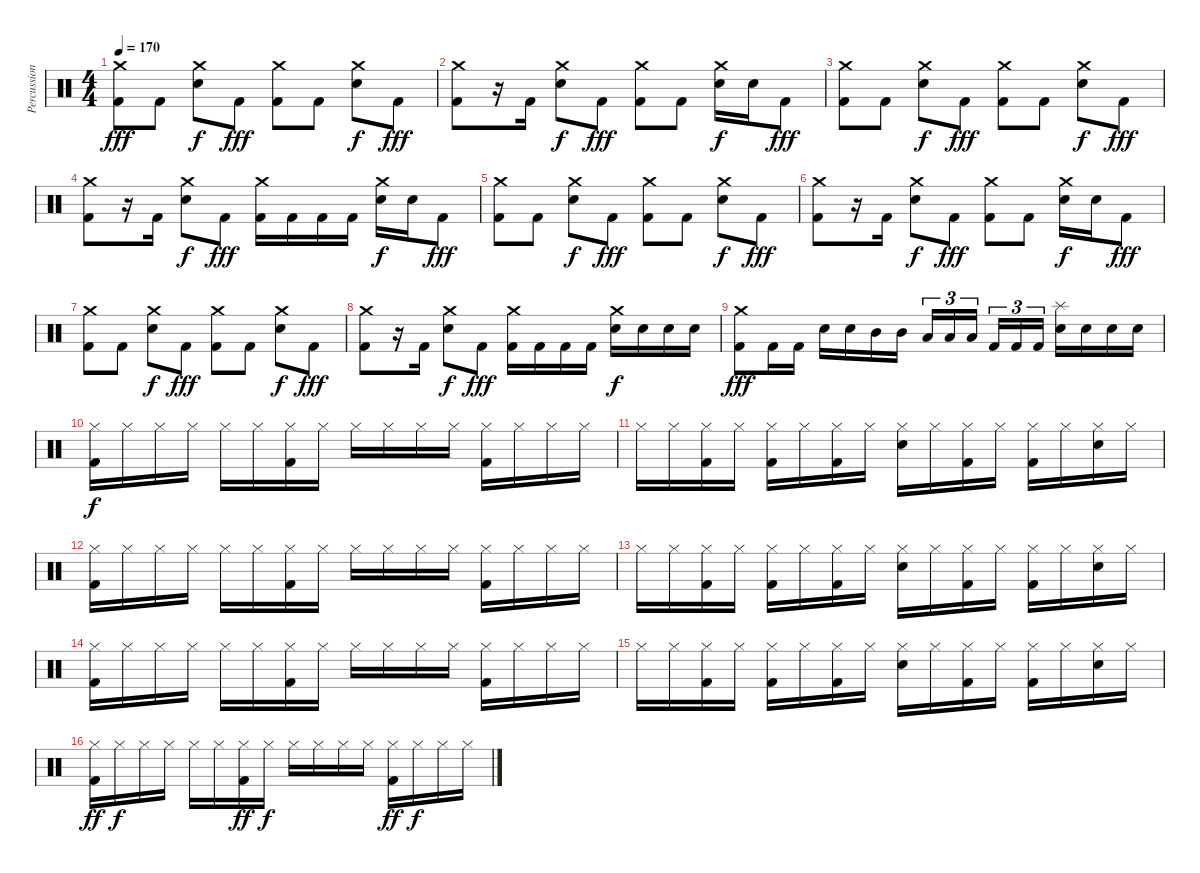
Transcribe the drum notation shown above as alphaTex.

\track ("Percussion" "Percussion") {instrument percussion}
\staff {score}
\articulation defaults
\ts (4 4)
\tempo 170
\clef neutral
\ks c
("Crash medium (hit)" "Kick (hit) 2").8{dy fff} "Kick (hit) 2".8 ("Crash medium (hit)" "Electric Snare (hit)").8{dy f} "Kick (hit) 2".8{dy fff} ("Crash medium (hit)" "Kick (hit) 2").8 "Kick (hit) 2".8 ("Crash medium (hit)" "Electric Snare (hit)").8{dy f} "Kick (hit) 2".8{dy fff} |
("Crash medium (hit)" "Kick (hit) 2").8 r.16 "Kick (hit) 2".16 ("Crash medium (hit)" "Electric Snare (hit)").8{dy f} "Kick (hit) 2".8{dy fff} ("Crash medium (hit)" "Kick (hit) 2").8 "Kick (hit) 2".8 ("Crash medium (hit)" "Electric Snare (hit)").16{dy f} "Electric Snare (hit)".16 "Kick (hit) 2".8{dy fff} |
("Crash medium (hit)" "Kick (hit) 2").8 "Kick (hit) 2".8 ("Crash medium (hit)" "Electric Snare (hit)").8{dy f} "Kick (hit) 2".8{dy fff} ("Crash medium (hit)" "Kick (hit) 2").8 "Kick (hit) 2".8 ("Crash medium (hit)" "Electric Snare (hit)").8{dy f} "Kick (hit) 2".8{dy fff} |
("Crash medium (hit)" "Kick (hit) 2").8 r.16 "Kick (hit) 2".16 ("Crash medium (hit)" "Electric Snare (hit)").8{dy f} "Kick (hit) 2".8{dy fff} ("Crash medium (hit)" "Kick (hit) 2").16 "Kick (hit) 2".16 "Kick (hit) 2".16 "Kick (hit) 2".16 ("Crash medium (hit)" "Electric Snare (hit)").16{dy f} "Electric Snare (hit)".16 "Kick (hit) 2".8{dy fff} |
("Crash medium (hit)" "Kick (hit) 2").8 "Kick (hit) 2".8 ("Crash medium (hit)" "Electric Snare (hit)").8{dy f} "Kick (hit) 2".8{dy fff} ("Crash medium (hit)" "Kick (hit) 2").8 "Kick (hit) 2".8 ("Crash medium (hit)" "Electric Snare (hit)").8{dy f} "Kick (hit) 2".8{dy fff} |
("Crash medium (hit)" "Kick (hit) 2").8 r.16 "Kick (hit) 2".16 ("Crash medium (hit)" "Electric Snare (hit)").8{dy f} "Kick (hit) 2".8{dy fff} ("Crash medium (hit)" "Kick (hit) 2").8 "Kick (hit) 2".8 ("Crash medium (hit)" "Electric Snare (hit)").16{dy f} "Electric Snare (hit)".16 "Kick (hit) 2".8{dy fff} |
("Crash medium (hit)" "Kick (hit) 2").8 "Kick (hit) 2".8 ("Crash medium (hit)" "Electric Snare (hit)").8{dy f} "Kick (hit) 2".8{dy fff} ("Crash medium (hit)" "Kick (hit) 2").8 "Kick (hit) 2".8 ("Crash medium (hit)" "Electric Snare (hit)").8{dy f} "Kick (hit) 2".8{dy fff} |
("Crash medium (hit)" "Kick (hit) 2").8 r.16 "Kick (hit) 2".16 ("Crash medium (hit)" "Electric Snare (hit)").8{dy f} "Kick (hit) 2".8{dy fff} ("Crash medium (hit)" "Kick (hit) 2").16 "Kick (hit) 2".16 "Kick (hit) 2".16 "Kick (hit) 2".16 ("Crash medium (hit)" "Electric Snare (hit)").16{dy f} "Electric Snare (hit)".16 "Electric Snare (hit)".16 "Electric Snare (hit)".16 |
("Crash medium (hit)" "Kick (hit) 2").8{dy fff} "Kick (hit) 2".16 "Kick (hit) 2".16 "Electric Snare (hit)".16 "Electric Snare (hit)".16 "Mid Tom (hit)".16 "Mid Tom (hit)".16 "Low Tom (hit)".16{tu (3 2)} "Low Tom (hit)".16{tu (3 2)} "Low Tom (hit)".16{tu (3 2) beam splitsecondary} "Kick (hit) 2".16{tu (3 2)} "Kick (hit) 2".16{tu (3 2)} "Kick (hit) 2".16{tu (3 2)} ("Splash (hit)" "Electric Snare (hit)").16 "Electric Snare (hit)".16 "Electric Snare (hit)".16 "Electric Snare (hit)".16 |
("Hi-Hat (closed)" "Kick (hit) 2").16{dy f} "Hi-Hat (closed)".16 "Hi-Hat (closed)".16 "Hi-Hat (closed)".16 "Hi-Hat (closed)".16 "Hi-Hat (closed)".16 ("Hi-Hat (closed)" "Kick (hit) 2").16 "Hi-Hat (closed)".16 "Hi-Hat (closed)".16 "Hi-Hat (closed)".16 "Hi-Hat (closed)".16 "Hi-Hat (closed)".16 ("Hi-Hat (closed)" "Kick (hit) 2").16 "Hi-Hat (closed)".16 "Hi-Hat (closed)".16 "Hi-Hat (closed)".16 |
"Hi-Hat (closed)".16 "Hi-Hat (closed)".16 ("Hi-Hat (closed)" "Kick (hit) 2").16 "Hi-Hat (closed)".16 ("Hi-Hat (closed)" "Kick (hit) 2").16 "Hi-Hat (closed)".16 ("Hi-Hat (closed)" "Kick (hit) 2").16 "Hi-Hat (closed)".16 ("Hi-Hat (closed)" "Electric Snare (hit)").16 "Hi-Hat (closed)".16 ("Hi-Hat (closed)" "Kick (hit) 2").16 "Hi-Hat (closed)".16 ("Hi-Hat (closed)" "Kick (hit) 2").16 "Hi-Hat (closed)".16 ("Hi-Hat (closed)" "Electric Snare (hit)").16 "Hi-Hat (closed)".16 |
("Hi-Hat (closed)" "Kick (hit) 2").16 "Hi-Hat (closed)".16 "Hi-Hat (closed)".16 "Hi-Hat (closed)".16 "Hi-Hat (closed)".16 "Hi-Hat (closed)".16 ("Hi-Hat (closed)" "Kick (hit) 2").16 "Hi-Hat (closed)".16 "Hi-Hat (closed)".16 "Hi-Hat (closed)".16 "Hi-Hat (closed)".16 "Hi-Hat (closed)".16 ("Hi-Hat (closed)" "Kick (hit) 2").16 "Hi-Hat (closed)".16 "Hi-Hat (closed)".16 "Hi-Hat (closed)".16 |
"Hi-Hat (closed)".16 "Hi-Hat (closed)".16 ("Hi-Hat (closed)" "Kick (hit) 2").16 "Hi-Hat (closed)".16 ("Hi-Hat (closed)" "Kick (hit) 2").16 "Hi-Hat (closed)".16 ("Hi-Hat (closed)" "Kick (hit) 2").16 "Hi-Hat (closed)".16 ("Hi-Hat (closed)" "Electric Snare (hit)").16 "Hi-Hat (closed)".16 ("Hi-Hat (closed)" "Kick (hit) 2").16 "Hi-Hat (closed)".16 ("Hi-Hat (closed)" "Kick (hit) 2").16 "Hi-Hat (closed)".16 ("Hi-Hat (closed)" "Electric Snare (hit)").16 "Hi-Hat (closed)".16 |
("Hi-Hat (closed)" "Kick (hit) 2").16 "Hi-Hat (closed)".16 "Hi-Hat (closed)".16 "Hi-Hat (closed)".16 "Hi-Hat (closed)".16 "Hi-Hat (closed)".16 ("Hi-Hat (closed)" "Kick (hit) 2").16 "Hi-Hat (closed)".16 "Hi-Hat (closed)".16 "Hi-Hat (closed)".16 "Hi-Hat (closed)".16 "Hi-Hat (closed)".16 ("Hi-Hat (closed)" "Kick (hit) 2").16 "Hi-Hat (closed)".16 "Hi-Hat (closed)".16 "Hi-Hat (closed)".16 |
"Hi-Hat (closed)".16 "Hi-Hat (closed)".16 ("Hi-Hat (closed)" "Kick (hit) 2").16 "Hi-Hat (closed)".16 ("Hi-Hat (closed)" "Kick (hit) 2").16 "Hi-Hat (closed)".16 ("Hi-Hat (closed)" "Kick (hit) 2").16 "Hi-Hat (closed)".16 ("Hi-Hat (closed)" "Electric Snare (hit)").16 "Hi-Hat (closed)".16 ("Hi-Hat (closed)" "Kick (hit) 2").16 "Hi-Hat (closed)".16 ("Hi-Hat (closed)" "Kick (hit) 2").16 "Hi-Hat (closed)".16 ("Hi-Hat (closed)" "Electric Snare (hit)").16 "Hi-Hat (closed)".16 |
("Hi-Hat (closed)" "Kick (hit) 2").16{dy ff} "Hi-Hat (closed)".16{dy f} "Hi-Hat (closed)".16 "Hi-Hat (closed)".16 "Hi-Hat (closed)".16 "Hi-Hat (closed)".16 ("Hi-Hat (closed)" "Kick (hit) 2").16{dy ff} "Hi-Hat (closed)".16{dy f} "Hi-Hat (closed)".16 "Hi-Hat (closed)".16 "Hi-Hat (closed)".16 "Hi-Hat (closed)".16 ("Hi-Hat (closed)" "Kick (hit) 2").16{dy ff} "Hi-Hat (closed)".16{dy f} "Hi-Hat (closed)".16 "Hi-Hat (closed)".16
